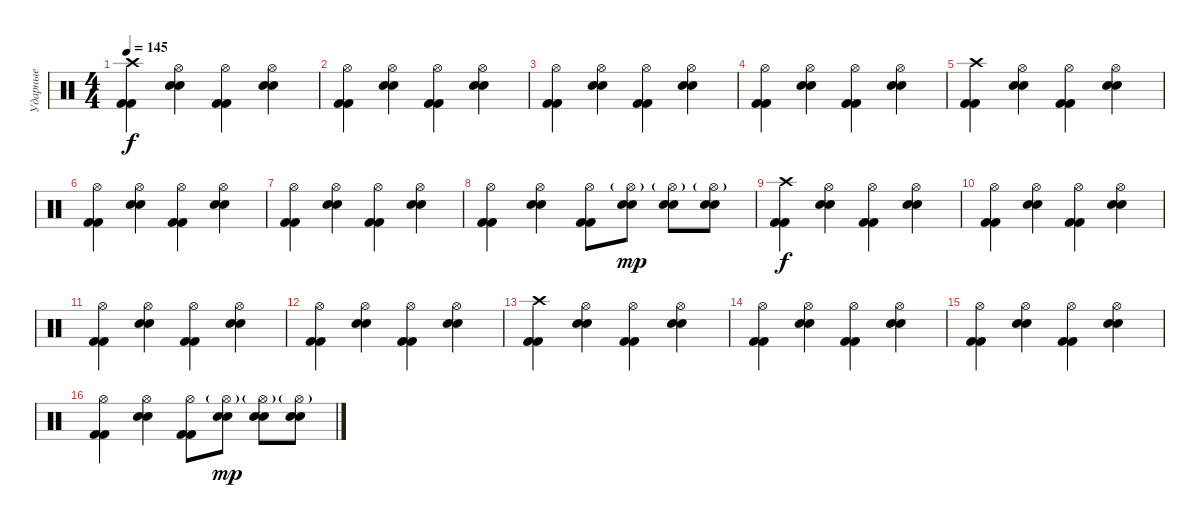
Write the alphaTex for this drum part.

\track ("Ударные" "Ударные") {instrument percussion}
\staff {score}
\articulation defaults
\ts (4 4)
\tempo 145
\clef neutral
\ks c
("Crash high (hit)" "Kick (hit) 2" "Kick (hit) 2").4{dy f} ("Hi-Hat (open)" "Electric Snare (hit)" "Electric Snare (hit)").4 ("Hi-Hat (open)" "Kick (hit) 2" "Kick (hit) 2").4 ("Hi-Hat (open)" "Electric Snare (hit)" "Electric Snare (hit)").4 |
("Hi-Hat (open)" "Kick (hit) 2" "Kick (hit) 2").4 ("Hi-Hat (open)" "Electric Snare (hit)" "Electric Snare (hit)").4 ("Hi-Hat (open)" "Kick (hit) 2" "Kick (hit) 2").4 ("Hi-Hat (open)" "Electric Snare (hit)" "Electric Snare (hit)").4 |
("Hi-Hat (open)" "Kick (hit) 2" "Kick (hit) 2").4 ("Hi-Hat (open)" "Electric Snare (hit)" "Electric Snare (hit)").4 ("Hi-Hat (open)" "Kick (hit) 2" "Kick (hit) 2").4 ("Hi-Hat (open)" "Electric Snare (hit)" "Electric Snare (hit)").4 |
("Hi-Hat (open)" "Kick (hit) 2" "Kick (hit) 2").4 ("Hi-Hat (open)" "Electric Snare (hit)" "Electric Snare (hit)").4 ("Hi-Hat (open)" "Kick (hit) 2" "Kick (hit) 2").4 ("Hi-Hat (open)" "Electric Snare (hit)" "Electric Snare (hit)").4 |
("Crash high (hit)" "Kick (hit) 2" "Kick (hit) 2").4 ("Hi-Hat (open)" "Electric Snare (hit)" "Electric Snare (hit)").4 ("Hi-Hat (open)" "Kick (hit) 2" "Kick (hit) 2").4 ("Hi-Hat (open)" "Electric Snare (hit)" "Electric Snare (hit)").4 |
("Hi-Hat (open)" "Kick (hit) 2" "Kick (hit) 2").4 ("Hi-Hat (open)" "Electric Snare (hit)" "Electric Snare (hit)").4 ("Hi-Hat (open)" "Kick (hit) 2" "Kick (hit) 2").4 ("Hi-Hat (open)" "Electric Snare (hit)" "Electric Snare (hit)").4 |
("Hi-Hat (open)" "Kick (hit) 2" "Kick (hit) 2").4 ("Hi-Hat (open)" "Electric Snare (hit)" "Electric Snare (hit)").4 ("Hi-Hat (open)" "Kick (hit) 2" "Kick (hit) 2").4 ("Hi-Hat (open)" "Electric Snare (hit)" "Electric Snare (hit)").4 |
("Hi-Hat (open)" "Kick (hit) 2" "Kick (hit) 2").4 ("Hi-Hat (open)" "Electric Snare (hit)" "Electric Snare (hit)").4 ("Hi-Hat (open)" "Kick (hit) 2" "Kick (hit) 2").8 ("Hi-Hat (open)"{g} "Electric Snare (hit)" "Electric Snare (hit)").8{dy mp} ("Hi-Hat (open)"{g} "Electric Snare (hit)" "Electric Snare (hit)").8 ("Hi-Hat (open)"{g} "Electric Snare (hit)" "Electric Snare (hit)").8 |
("Crash high (hit)" "Kick (hit) 2" "Kick (hit) 2").4{dy f} ("Hi-Hat (open)" "Electric Snare (hit)" "Electric Snare (hit)").4 ("Hi-Hat (open)" "Kick (hit) 2" "Kick (hit) 2").4 ("Hi-Hat (open)" "Electric Snare (hit)" "Electric Snare (hit)").4 |
("Hi-Hat (open)" "Kick (hit) 2" "Kick (hit) 2").4 ("Hi-Hat (open)" "Electric Snare (hit)" "Electric Snare (hit)").4 ("Hi-Hat (open)" "Kick (hit) 2" "Kick (hit) 2").4 ("Hi-Hat (open)" "Electric Snare (hit)" "Electric Snare (hit)").4 |
("Hi-Hat (open)" "Kick (hit) 2" "Kick (hit) 2").4 ("Hi-Hat (open)" "Electric Snare (hit)" "Electric Snare (hit)").4 ("Hi-Hat (open)" "Kick (hit) 2" "Kick (hit) 2").4 ("Hi-Hat (open)" "Electric Snare (hit)" "Electric Snare (hit)").4 |
("Hi-Hat (open)" "Kick (hit) 2" "Kick (hit) 2").4 ("Hi-Hat (open)" "Electric Snare (hit)" "Electric Snare (hit)").4 ("Hi-Hat (open)" "Kick (hit) 2" "Kick (hit) 2").4 ("Hi-Hat (open)" "Electric Snare (hit)" "Electric Snare (hit)").4 |
("Crash high (hit)" "Kick (hit) 2" "Kick (hit) 2").4 ("Hi-Hat (open)" "Electric Snare (hit)" "Electric Snare (hit)").4 ("Hi-Hat (open)" "Kick (hit) 2" "Kick (hit) 2").4 ("Hi-Hat (open)" "Electric Snare (hit)" "Electric Snare (hit)").4 |
("Hi-Hat (open)" "Kick (hit) 2" "Kick (hit) 2").4 ("Hi-Hat (open)" "Electric Snare (hit)" "Electric Snare (hit)").4 ("Hi-Hat (open)" "Kick (hit) 2" "Kick (hit) 2").4 ("Hi-Hat (open)" "Electric Snare (hit)" "Electric Snare (hit)").4 |
("Hi-Hat (open)" "Kick (hit) 2" "Kick (hit) 2").4 ("Hi-Hat (open)" "Electric Snare (hit)" "Electric Snare (hit)").4 ("Hi-Hat (open)" "Kick (hit) 2" "Kick (hit) 2").4 ("Hi-Hat (open)" "Electric Snare (hit)" "Electric Snare (hit)").4 |
("Hi-Hat (open)" "Kick (hit) 2" "Kick (hit) 2").4 ("Hi-Hat (open)" "Electric Snare (hit)" "Electric Snare (hit)").4 ("Hi-Hat (open)" "Kick (hit) 2" "Kick (hit) 2").8 ("Hi-Hat (open)"{g} "Electric Snare (hit)" "Electric Snare (hit)").8{dy mp} ("Hi-Hat (open)"{g} "Electric Snare (hit)" "Electric Snare (hit)").8 ("Hi-Hat (open)"{g} "Electric Snare (hit)" "Electric Snare (hit)").8
